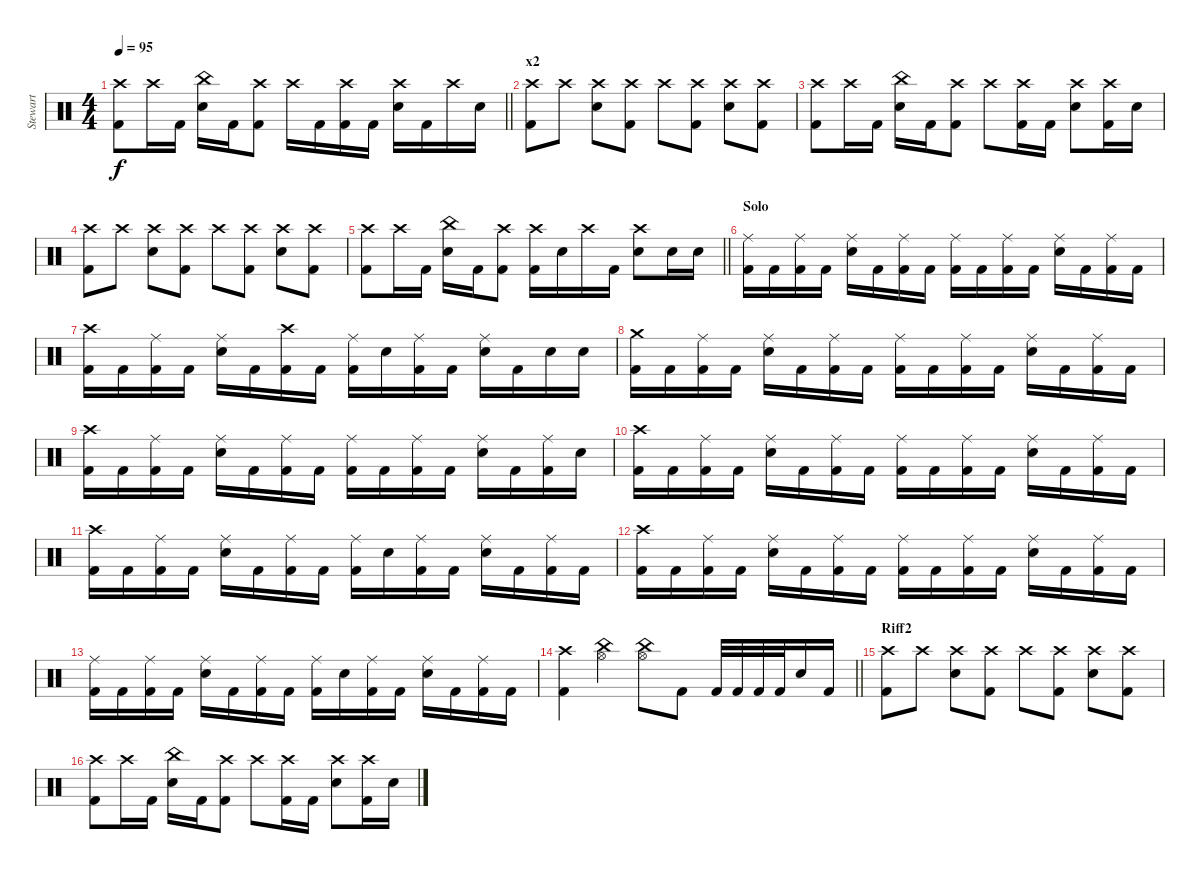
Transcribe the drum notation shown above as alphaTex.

\track ("Stewart" "Stewart") {instrument percussion}
\staff {score}
\articulation defaults
\ts (4 4)
\tempo 95
\clef neutral
\barLineRight lightlight
\ks c
("Crash high (hit)" "Kick (hit) 2").8{dy f} "Crash high (hit)".16 "Kick (hit) 2".16 ("China (hit)" "Electric Snare (hit)").16 "Kick (hit) 2".16 ("Crash high (hit)" "Kick (hit) 2").8 "Crash high (hit)".16 "Kick (hit) 2".16 ("Crash high (hit)" "Kick (hit) 2").16 "Kick (hit) 2".16 ("Crash high (hit)" "Electric Snare (hit)").16 "Kick (hit) 2".16 "Crash high (hit)".16 "Electric Snare (hit)".16 |
\section ("" "x2")
("Crash high (hit)" "Kick (hit) 2").8 "Crash high (hit)".8 ("Crash high (hit)" "Electric Snare (hit)").8 ("Crash high (hit)" "Kick (hit) 2").8 "Crash high (hit)".8 ("Crash high (hit)" "Kick (hit) 2").8 ("Crash high (hit)" "Electric Snare (hit)").8 ("Crash high (hit)" "Kick (hit) 2").8 |
("Crash high (hit)" "Kick (hit) 2").8 "Crash high (hit)".16 "Kick (hit) 2".16 ("China (hit)" "Electric Snare (hit)").16 "Kick (hit) 2".16 ("Crash high (hit)" "Kick (hit) 2").8 "Crash high (hit)".8 ("Crash high (hit)" "Kick (hit) 2").16 "Kick (hit) 2".16 ("Crash high (hit)" "Electric Snare (hit)").8 ("Crash high (hit)" "Kick (hit) 2").16 "Electric Snare (hit)".16 |
("Crash high (hit)" "Kick (hit) 2").8 "Crash high (hit)".8 ("Crash high (hit)" "Electric Snare (hit)").8 ("Crash high (hit)" "Kick (hit) 2").8 "Crash high (hit)".8 ("Crash high (hit)" "Kick (hit) 2").8 ("Crash high (hit)" "Electric Snare (hit)").8 ("Crash high (hit)" "Kick (hit) 2").8 |
\barLineRight lightlight
("Crash high (hit)" "Kick (hit) 2").8 "Crash high (hit)".16 "Kick (hit) 2".16 ("China (hit)" "Electric Snare (hit)").16 "Kick (hit) 2".16 ("Crash high (hit)" "Kick (hit) 2").8 ("Crash high (hit)" "Kick (hit) 2").16 "Electric Snare (hit)".16 "Crash high (hit)".16 "Kick (hit) 2".16 ("Crash high (hit)" "Electric Snare (hit)").8 "Electric Snare (hit)".16 "Electric Snare (hit)".16 |
\section ("" "Solo")
("Kick (hit) 2" "Ride (middle)").16 "Kick (hit) 2".16 ("Kick (hit) 2" "Ride (middle)").16 "Kick (hit) 2".16 ("Electric Snare (hit)" "Ride (middle)").16 "Kick (hit) 2".16 ("Kick (hit) 2" "Ride (middle)").16 "Kick (hit) 2".16 ("Kick (hit) 2" "Ride (middle)").16 "Kick (hit) 2".16 ("Kick (hit) 2" "Ride (middle)").16 "Kick (hit) 2".16 ("Electric Snare (hit)" "Ride (middle)").16 "Kick (hit) 2".16 ("Kick (hit) 2" "Ride (middle)").16 "Kick (hit) 2".16 |
("Crash high (hit)" "Kick (hit) 2").16 "Kick (hit) 2".16 ("Kick (hit) 2" "Ride (middle)").16 "Kick (hit) 2".16 ("Electric Snare (hit)" "Ride (middle)").16 "Kick (hit) 2".16 ("Crash high (hit)" "Kick (hit) 2").16 "Kick (hit) 2".16 ("Kick (hit) 2" "Ride (middle)").16 "Electric Snare (hit)".16 ("Kick (hit) 2" "Ride (middle)").16 "Kick (hit) 2".16 ("Electric Snare (hit)" "Ride (middle)").16 "Kick (hit) 2".16 "Electric Snare (hit)".16 "Electric Snare (hit)".16 |
("Crash medium (hit)" "Kick (hit) 2").16 "Kick (hit) 2".16 ("Kick (hit) 2" "Ride (middle)").16 "Kick (hit) 2".16 ("Electric Snare (hit)" "Ride (middle)").16 "Kick (hit) 2".16 ("Kick (hit) 2" "Ride (middle)").16 "Kick (hit) 2".16 ("Kick (hit) 2" "Ride (middle)").16 "Kick (hit) 2".16 ("Kick (hit) 2" "Ride (middle)").16 "Kick (hit) 2".16 ("Electric Snare (hit)" "Ride (middle)").16 "Kick (hit) 2".16 ("Kick (hit) 2" "Ride (middle)").16 "Kick (hit) 2".16 |
("Crash high (hit)" "Kick (hit) 2").16 "Kick (hit) 2".16 ("Kick (hit) 2" "Ride (middle)").16 "Kick (hit) 2".16 ("Electric Snare (hit)" "Ride (middle)").16 "Kick (hit) 2".16 ("Kick (hit) 2" "Ride (middle)").16 "Kick (hit) 2".16 ("Kick (hit) 2" "Ride (middle)").16 "Kick (hit) 2".16 ("Kick (hit) 2" "Ride (middle)").16 "Kick (hit) 2".16 ("Electric Snare (hit)" "Ride (middle)").16 "Kick (hit) 2".16 ("Kick (hit) 2" "Ride (middle)").16 "Electric Snare (hit)".16 |
("Crash high (hit)" "Kick (hit) 2").16 "Kick (hit) 2".16 ("Kick (hit) 2" "Ride (middle)").16 "Kick (hit) 2".16 ("Electric Snare (hit)" "Ride (middle)").16 "Kick (hit) 2".16 ("Kick (hit) 2" "Ride (middle)").16 "Kick (hit) 2".16 ("Kick (hit) 2" "Ride (middle)").16 "Kick (hit) 2".16 ("Kick (hit) 2" "Ride (middle)").16 "Kick (hit) 2".16 ("Electric Snare (hit)" "Ride (middle)").16 "Kick (hit) 2".16 ("Kick (hit) 2" "Ride (middle)").16 "Kick (hit) 2".16 |
("Crash high (hit)" "Kick (hit) 2").16 "Kick (hit) 2".16 ("Kick (hit) 2" "Ride (middle)").16 "Kick (hit) 2".16 ("Electric Snare (hit)" "Ride (middle)").16 "Kick (hit) 2".16 ("Kick (hit) 2" "Ride (middle)").16 "Kick (hit) 2".16 ("Kick (hit) 2" "Ride (middle)").16 "Electric Snare (hit)".16 ("Kick (hit) 2" "Ride (middle)").16 "Kick (hit) 2".16 ("Electric Snare (hit)" "Ride (middle)").16 "Kick (hit) 2".16 ("Kick (hit) 2" "Ride (middle)").16 "Kick (hit) 2".16 |
("Crash high (hit)" "Kick (hit) 2").16 "Kick (hit) 2".16 ("Kick (hit) 2" "Ride (middle)").16 "Kick (hit) 2".16 ("Electric Snare (hit)" "Ride (middle)").16 "Kick (hit) 2".16 ("Kick (hit) 2" "Ride (middle)").16 "Kick (hit) 2".16 ("Kick (hit) 2" "Ride (middle)").16 "Kick (hit) 2".16 ("Kick (hit) 2" "Ride (middle)").16 "Kick (hit) 2".16 ("Electric Snare (hit)" "Ride (middle)").16 "Kick (hit) 2".16 ("Kick (hit) 2" "Ride (middle)").16 "Kick (hit) 2".16 |
("Kick (hit) 2" "Ride (middle)").16 "Kick (hit) 2".16 ("Kick (hit) 2" "Ride (middle)").16 "Kick (hit) 2".16 ("Electric Snare (hit)" "Ride (middle)").16 "Kick (hit) 2".16 ("Kick (hit) 2" "Ride (middle)").16 "Kick (hit) 2".16 ("Kick (hit) 2" "Ride (middle)").16 "Electric Snare (hit)".16 ("Kick (hit) 2" "Ride (middle)").16 "Kick (hit) 2".16 ("Electric Snare (hit)" "Ride (middle)").16 "Kick (hit) 2".16 ("Kick (hit) 2" "Ride (middle)").16 "Kick (hit) 2".16 |
\barLineRight lightlight
("Crash high (hit)" "Kick (hit) 2").4 ("China (hit)" "Hi-Hat (open)").4 ("China (hit)" "Hi-Hat (open)").8 "Kick (hit) 2".8 "Kick (hit) 2".32 "Kick (hit) 2".32 "Kick (hit) 2".32 "Kick (hit) 2".32 "Electric Snare (hit)".16 "Kick (hit) 2".16 |
\section ("" "Riff2")
("Crash high (hit)" "Kick (hit) 2").8 "Crash high (hit)".8 ("Crash high (hit)" "Electric Snare (hit)").8 ("Crash high (hit)" "Kick (hit) 2").8 "Crash high (hit)".8 ("Crash high (hit)" "Kick (hit) 2").8 ("Crash high (hit)" "Electric Snare (hit)").8 ("Crash high (hit)" "Kick (hit) 2").8 |
("Crash high (hit)" "Kick (hit) 2").8 "Crash high (hit)".16 "Kick (hit) 2".16 ("China (hit)" "Electric Snare (hit)").16 "Kick (hit) 2".16 ("Crash high (hit)" "Kick (hit) 2").8 "Crash high (hit)".8 ("Crash high (hit)" "Kick (hit) 2").16 "Kick (hit) 2".16 ("Crash high (hit)" "Electric Snare (hit)").8 ("Crash high (hit)" "Kick (hit) 2").16 "Electric Snare (hit)".16
